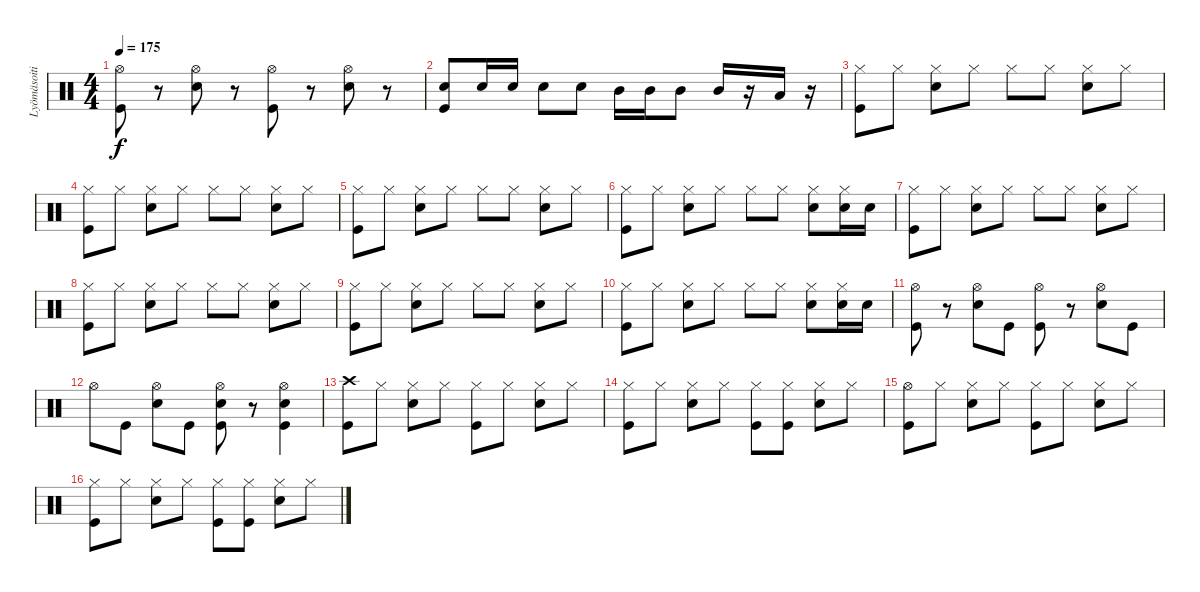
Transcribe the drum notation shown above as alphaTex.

\track ("Lyömäsoitin" "Lyömäsoiti") {instrument percussion}
\staff {score}
\articulation defaults
\ts (4 4)
\tempo 175
\clef neutral
\ks c
("Hi-Hat (open)" "Kick (hit)").8{dy f} r.8 ("Hi-Hat (open)" "Electric Snare (hit)").8 r.8 ("Hi-Hat (open)" "Kick (hit)").8 r.8 ("Hi-Hat (open)" "Electric Snare (hit)").8 r.8 |
("Electric Snare (hit)" "Kick (hit)").8 "Electric Snare (hit)".16 "Electric Snare (hit)".16 "Electric Snare (hit)".8 "Electric Snare (hit)".8 "Mid Tom (hit)".16 "Mid Tom (hit)".16 "Mid Tom (hit)".8 "Mid Tom (hit)".16 r.16 "Low Tom (hit)".16 r.16 |
("Hi-Hat (closed)" "Kick (hit)").8 "Hi-Hat (closed)".8 ("Hi-Hat (closed)" "Electric Snare (hit)").8 "Hi-Hat (closed)".8 "Hi-Hat (closed)".8 "Hi-Hat (closed)".8 ("Hi-Hat (closed)" "Electric Snare (hit)").8 "Hi-Hat (closed)".8 |
("Hi-Hat (closed)" "Kick (hit)").8 "Hi-Hat (closed)".8 ("Hi-Hat (closed)" "Electric Snare (hit)").8 "Hi-Hat (closed)".8 "Hi-Hat (closed)".8 "Hi-Hat (closed)".8 ("Hi-Hat (closed)" "Electric Snare (hit)").8 "Hi-Hat (closed)".8 |
("Hi-Hat (closed)" "Kick (hit)").8 "Hi-Hat (closed)".8 ("Hi-Hat (closed)" "Electric Snare (hit)").8 "Hi-Hat (closed)".8 "Hi-Hat (closed)".8 "Hi-Hat (closed)".8 ("Hi-Hat (closed)" "Electric Snare (hit)").8 "Hi-Hat (closed)".8 |
("Hi-Hat (closed)" "Kick (hit)").8 "Hi-Hat (closed)".8 ("Hi-Hat (closed)" "Electric Snare (hit)").8 "Hi-Hat (closed)".8 "Hi-Hat (closed)".8 "Hi-Hat (closed)".8 ("Hi-Hat (closed)" "Electric Snare (hit)").8 ("Hi-Hat (closed)" "Electric Snare (hit)").16 "Electric Snare (hit)".16 |
("Hi-Hat (closed)" "Kick (hit)").8 "Hi-Hat (closed)".8 ("Hi-Hat (closed)" "Electric Snare (hit)").8 "Hi-Hat (closed)".8 "Hi-Hat (closed)".8 "Hi-Hat (closed)".8 ("Hi-Hat (closed)" "Electric Snare (hit)").8 "Hi-Hat (closed)".8 |
("Hi-Hat (closed)" "Kick (hit)").8 "Hi-Hat (closed)".8 ("Hi-Hat (closed)" "Electric Snare (hit)").8 "Hi-Hat (closed)".8 "Hi-Hat (closed)".8 "Hi-Hat (closed)".8 ("Hi-Hat (closed)" "Electric Snare (hit)").8 "Hi-Hat (closed)".8 |
("Hi-Hat (closed)" "Kick (hit)").8 "Hi-Hat (closed)".8 ("Hi-Hat (closed)" "Electric Snare (hit)").8 "Hi-Hat (closed)".8 "Hi-Hat (closed)".8 "Hi-Hat (closed)".8 ("Hi-Hat (closed)" "Electric Snare (hit)").8 "Hi-Hat (closed)".8 |
("Hi-Hat (closed)" "Kick (hit)").8 "Hi-Hat (closed)".8 ("Hi-Hat (closed)" "Electric Snare (hit)").8 "Hi-Hat (closed)".8 "Hi-Hat (closed)".8 "Hi-Hat (closed)".8 ("Hi-Hat (closed)" "Electric Snare (hit)").8 ("Hi-Hat (closed)" "Electric Snare (hit)").16 "Electric Snare (hit)".16 |
("Hi-Hat (open)" "Kick (hit)").8 r.8 ("Hi-Hat (open)" "Electric Snare (hit)").8 "Kick (hit)".8 ("Hi-Hat (open)" "Kick (hit)").8 r.8 ("Hi-Hat (open)" "Electric Snare (hit)").8 "Kick (hit)".8 |
"Hi-Hat (open)".8 "Kick (hit)".8 ("Hi-Hat (open)" "Electric Snare (hit)").8 "Kick (hit)".8 ("Hi-Hat (open)" "Electric Snare (hit)" "Kick (hit)").8 r.8 ("Hi-Hat (open)" "Electric Snare (hit)" "Kick (hit)").4 |
("Crash high (hit)" "Kick (hit)").8 "Hi-Hat (closed)".8 ("Hi-Hat (closed)" "Electric Snare (hit)").8 "Hi-Hat (closed)".8 ("Hi-Hat (closed)" "Kick (hit)").8 "Hi-Hat (closed)".8 ("Hi-Hat (closed)" "Electric Snare (hit)").8 "Hi-Hat (closed)".8 |
("Hi-Hat (closed)" "Kick (hit)").8 "Hi-Hat (closed)".8 ("Hi-Hat (closed)" "Electric Snare (hit)").8 "Hi-Hat (closed)".8 ("Hi-Hat (closed)" "Kick (hit)").8 ("Hi-Hat (closed)" "Kick (hit)").8 ("Hi-Hat (closed)" "Electric Snare (hit)").8 "Hi-Hat (closed)".8 |
("Hi-Hat (open)" "Kick (hit)").8 "Hi-Hat (closed)".8 ("Hi-Hat (closed)" "Electric Snare (hit)").8 "Hi-Hat (closed)".8 ("Hi-Hat (closed)" "Kick (hit)").8 "Hi-Hat (closed)".8 ("Hi-Hat (closed)" "Electric Snare (hit)").8 "Hi-Hat (closed)".8 |
("Hi-Hat (closed)" "Kick (hit)").8 "Hi-Hat (closed)".8 ("Hi-Hat (closed)" "Electric Snare (hit)").8 "Hi-Hat (closed)".8 ("Hi-Hat (closed)" "Kick (hit)").8 ("Hi-Hat (closed)" "Kick (hit)").8 ("Hi-Hat (closed)" "Electric Snare (hit)").8 "Hi-Hat (closed)".8
